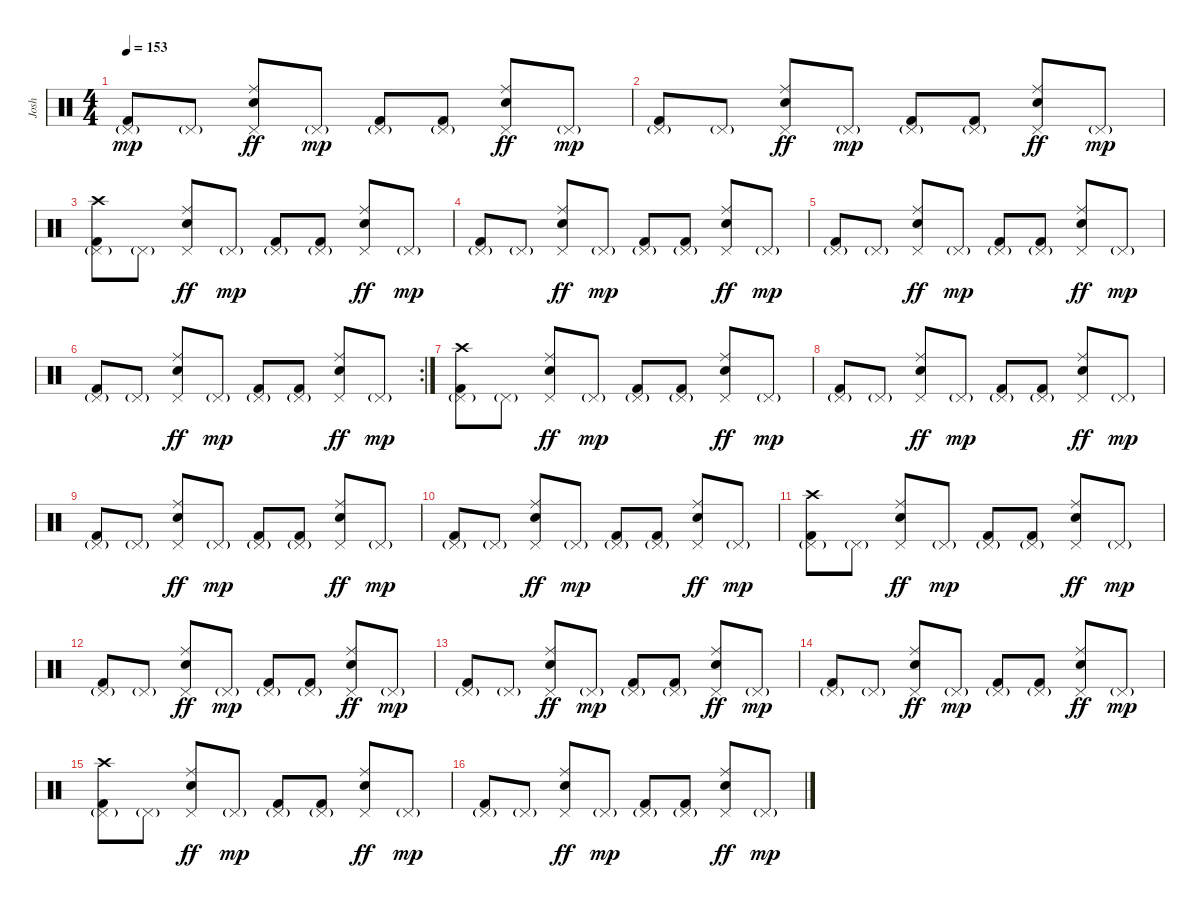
\track ("Josh" "Josh") {instrument percussion}
\staff {score}
\articulation defaults
\ts (4 4)
\tempo 153
\clef neutral
\ks c
("Pedal Hi-Hat (hit)"{g} "Kick (hit) 2").8{dy mp} "Pedal Hi-Hat (hit)"{g}.8 ("Ride (middle)" "Pedal Hi-Hat (hit)" "Electric Snare (hit)").8{dy ff} "Pedal Hi-Hat (hit)"{g}.8{dy mp} ("Pedal Hi-Hat (hit)"{g} "Kick (hit) 2").8 ("Pedal Hi-Hat (hit)"{g} "Kick (hit) 2").8 ("Ride (middle)" "Pedal Hi-Hat (hit)" "Electric Snare (hit)").8{dy ff} "Pedal Hi-Hat (hit)"{g}.8{dy mp} |
("Pedal Hi-Hat (hit)"{g} "Kick (hit) 2").8 "Pedal Hi-Hat (hit)"{g}.8 ("Ride (middle)" "Pedal Hi-Hat (hit)" "Electric Snare (hit)").8{dy ff} "Pedal Hi-Hat (hit)"{g}.8{dy mp} ("Pedal Hi-Hat (hit)"{g} "Kick (hit) 2").8 ("Pedal Hi-Hat (hit)"{g} "Kick (hit) 2").8 ("Ride (middle)" "Pedal Hi-Hat (hit)" "Electric Snare (hit)").8{dy ff} "Pedal Hi-Hat (hit)"{g}.8{dy mp} |
("Crash high (hit)" "Pedal Hi-Hat (hit)"{g} "Kick (hit) 2").8 "Pedal Hi-Hat (hit)"{g}.8 ("Ride (middle)" "Pedal Hi-Hat (hit)" "Electric Snare (hit)").8{dy ff} "Pedal Hi-Hat (hit)"{g}.8{dy mp} ("Pedal Hi-Hat (hit)"{g} "Kick (hit) 2").8 ("Pedal Hi-Hat (hit)"{g} "Kick (hit) 2").8 ("Ride (middle)" "Pedal Hi-Hat (hit)" "Electric Snare (hit)").8{dy ff} "Pedal Hi-Hat (hit)"{g}.8{dy mp} |
("Pedal Hi-Hat (hit)"{g} "Kick (hit) 2").8 "Pedal Hi-Hat (hit)"{g}.8 ("Ride (middle)" "Pedal Hi-Hat (hit)" "Electric Snare (hit)").8{dy ff} "Pedal Hi-Hat (hit)"{g}.8{dy mp} ("Pedal Hi-Hat (hit)"{g} "Kick (hit) 2").8 ("Pedal Hi-Hat (hit)"{g} "Kick (hit) 2").8 ("Ride (middle)" "Pedal Hi-Hat (hit)" "Electric Snare (hit)").8{dy ff} "Pedal Hi-Hat (hit)"{g}.8{dy mp} |
("Pedal Hi-Hat (hit)"{g} "Kick (hit) 2").8 "Pedal Hi-Hat (hit)"{g}.8 ("Ride (middle)" "Pedal Hi-Hat (hit)" "Electric Snare (hit)").8{dy ff} "Pedal Hi-Hat (hit)"{g}.8{dy mp} ("Pedal Hi-Hat (hit)"{g} "Kick (hit) 2").8 ("Pedal Hi-Hat (hit)"{g} "Kick (hit) 2").8 ("Ride (middle)" "Pedal Hi-Hat (hit)" "Electric Snare (hit)").8{dy ff} "Pedal Hi-Hat (hit)"{g}.8{dy mp} |
\rc 2
("Pedal Hi-Hat (hit)"{g} "Kick (hit) 2").8 "Pedal Hi-Hat (hit)"{g}.8 ("Ride (middle)" "Pedal Hi-Hat (hit)" "Electric Snare (hit)").8{dy ff} "Pedal Hi-Hat (hit)"{g}.8{dy mp} ("Pedal Hi-Hat (hit)"{g} "Kick (hit) 2").8 ("Pedal Hi-Hat (hit)"{g} "Kick (hit) 2").8 ("Ride (middle)" "Pedal Hi-Hat (hit)" "Electric Snare (hit)").8{dy ff} "Pedal Hi-Hat (hit)"{g}.8{dy mp} |
("Crash high (hit)" "Pedal Hi-Hat (hit)"{g} "Kick (hit) 2").8 "Pedal Hi-Hat (hit)"{g}.8 ("Ride (middle)" "Pedal Hi-Hat (hit)" "Electric Snare (hit)").8{dy ff} "Pedal Hi-Hat (hit)"{g}.8{dy mp} ("Pedal Hi-Hat (hit)"{g} "Kick (hit) 2").8 ("Pedal Hi-Hat (hit)"{g} "Kick (hit) 2").8 ("Ride (middle)" "Pedal Hi-Hat (hit)" "Electric Snare (hit)").8{dy ff} "Pedal Hi-Hat (hit)"{g}.8{dy mp} |
("Pedal Hi-Hat (hit)"{g} "Kick (hit) 2").8 "Pedal Hi-Hat (hit)"{g}.8 ("Ride (middle)" "Pedal Hi-Hat (hit)" "Electric Snare (hit)").8{dy ff} "Pedal Hi-Hat (hit)"{g}.8{dy mp} ("Pedal Hi-Hat (hit)"{g} "Kick (hit) 2").8 ("Pedal Hi-Hat (hit)"{g} "Kick (hit) 2").8 ("Ride (middle)" "Pedal Hi-Hat (hit)" "Electric Snare (hit)").8{dy ff} "Pedal Hi-Hat (hit)"{g}.8{dy mp} |
("Pedal Hi-Hat (hit)"{g} "Kick (hit) 2").8 "Pedal Hi-Hat (hit)"{g}.8 ("Ride (middle)" "Pedal Hi-Hat (hit)" "Electric Snare (hit)").8{dy ff} "Pedal Hi-Hat (hit)"{g}.8{dy mp} ("Pedal Hi-Hat (hit)"{g} "Kick (hit) 2").8 ("Pedal Hi-Hat (hit)"{g} "Kick (hit) 2").8 ("Ride (middle)" "Pedal Hi-Hat (hit)" "Electric Snare (hit)").8{dy ff} "Pedal Hi-Hat (hit)"{g}.8{dy mp} |
("Pedal Hi-Hat (hit)"{g} "Kick (hit) 2").8 "Pedal Hi-Hat (hit)"{g}.8 ("Ride (middle)" "Pedal Hi-Hat (hit)" "Electric Snare (hit)").8{dy ff} "Pedal Hi-Hat (hit)"{g}.8{dy mp} ("Pedal Hi-Hat (hit)"{g} "Kick (hit) 2").8 ("Pedal Hi-Hat (hit)"{g} "Kick (hit) 2").8 ("Ride (middle)" "Pedal Hi-Hat (hit)" "Electric Snare (hit)").8{dy ff} "Pedal Hi-Hat (hit)"{g}.8{dy mp} |
("Crash high (hit)" "Pedal Hi-Hat (hit)"{g} "Kick (hit) 2").8 "Pedal Hi-Hat (hit)"{g}.8 ("Ride (middle)" "Pedal Hi-Hat (hit)" "Electric Snare (hit)").8{dy ff} "Pedal Hi-Hat (hit)"{g}.8{dy mp} ("Pedal Hi-Hat (hit)"{g} "Kick (hit) 2").8 ("Pedal Hi-Hat (hit)"{g} "Kick (hit) 2").8 ("Ride (middle)" "Pedal Hi-Hat (hit)" "Electric Snare (hit)").8{dy ff} "Pedal Hi-Hat (hit)"{g}.8{dy mp} |
("Pedal Hi-Hat (hit)"{g} "Kick (hit) 2").8 "Pedal Hi-Hat (hit)"{g}.8 ("Ride (middle)" "Pedal Hi-Hat (hit)" "Electric Snare (hit)").8{dy ff} "Pedal Hi-Hat (hit)"{g}.8{dy mp} ("Pedal Hi-Hat (hit)"{g} "Kick (hit) 2").8 ("Pedal Hi-Hat (hit)"{g} "Kick (hit) 2").8 ("Ride (middle)" "Pedal Hi-Hat (hit)" "Electric Snare (hit)").8{dy ff} "Pedal Hi-Hat (hit)"{g}.8{dy mp} |
("Pedal Hi-Hat (hit)"{g} "Kick (hit) 2").8 "Pedal Hi-Hat (hit)"{g}.8 ("Ride (middle)" "Pedal Hi-Hat (hit)" "Electric Snare (hit)").8{dy ff} "Pedal Hi-Hat (hit)"{g}.8{dy mp} ("Pedal Hi-Hat (hit)"{g} "Kick (hit) 2").8 ("Pedal Hi-Hat (hit)"{g} "Kick (hit) 2").8 ("Ride (middle)" "Pedal Hi-Hat (hit)" "Electric Snare (hit)").8{dy ff} "Pedal Hi-Hat (hit)"{g}.8{dy mp} |
("Pedal Hi-Hat (hit)"{g} "Kick (hit) 2").8 "Pedal Hi-Hat (hit)"{g}.8 ("Ride (middle)" "Pedal Hi-Hat (hit)" "Electric Snare (hit)").8{dy ff} "Pedal Hi-Hat (hit)"{g}.8{dy mp} ("Pedal Hi-Hat (hit)"{g} "Kick (hit) 2").8 ("Pedal Hi-Hat (hit)"{g} "Kick (hit) 2").8 ("Ride (middle)" "Pedal Hi-Hat (hit)" "Electric Snare (hit)").8{dy ff} "Pedal Hi-Hat (hit)"{g}.8{dy mp} |
("Crash high (hit)" "Pedal Hi-Hat (hit)"{g} "Kick (hit) 2").8{volume 9} "Pedal Hi-Hat (hit)"{g}.8 ("Ride (middle)" "Pedal Hi-Hat (hit)" "Electric Snare (hit)").8{dy ff} "Pedal Hi-Hat (hit)"{g}.8{dy mp} ("Pedal Hi-Hat (hit)"{g} "Kick (hit) 2").8 ("Pedal Hi-Hat (hit)"{g} "Kick (hit) 2").8 ("Ride (middle)" "Pedal Hi-Hat (hit)" "Electric Snare (hit)").8{dy ff} "Pedal Hi-Hat (hit)"{g}.8{dy mp} |
("Pedal Hi-Hat (hit)"{g} "Kick (hit) 2").8 "Pedal Hi-Hat (hit)"{g}.8 ("Ride (middle)" "Pedal Hi-Hat (hit)" "Electric Snare (hit)").8{dy ff} "Pedal Hi-Hat (hit)"{g}.8{dy mp} ("Pedal Hi-Hat (hit)"{g} "Kick (hit) 2").8 ("Pedal Hi-Hat (hit)"{g} "Kick (hit) 2").8 ("Ride (middle)" "Pedal Hi-Hat (hit)" "Electric Snare (hit)").8{dy ff} "Pedal Hi-Hat (hit)"{g}.8{dy mp}
